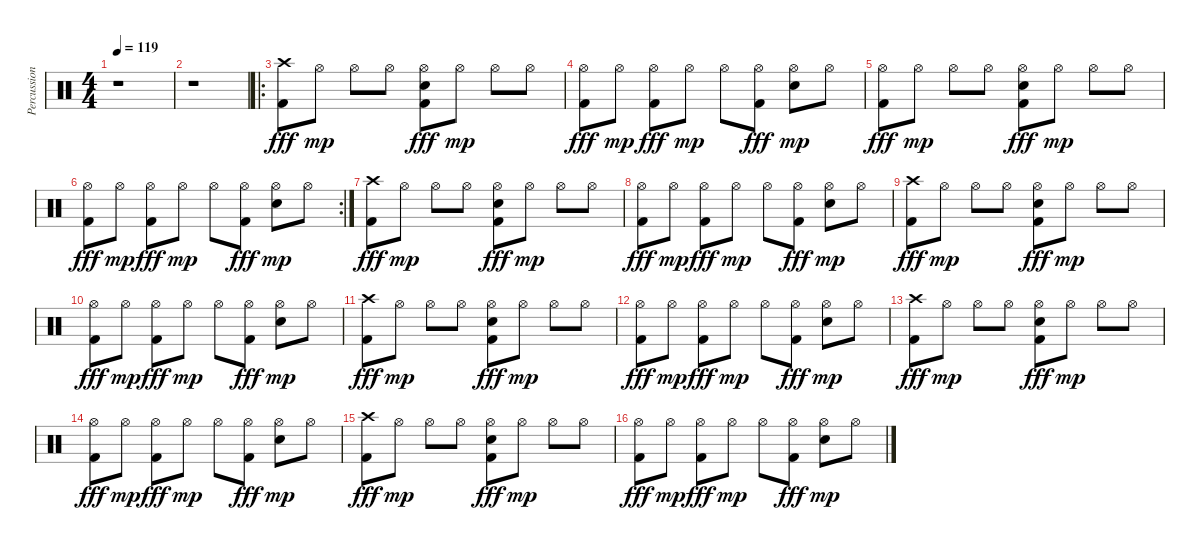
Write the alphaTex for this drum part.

\track ("Percussion" "Percussion") {instrument percussion}
\staff {score}
\articulation defaults
\ts (4 4)
\tempo 119
\clef neutral
\ks c
r.1{dy mp} |
r.1 |
\ro
("Crash high (hit)" "Kick (hit) 2").8{dy fff} "Hi-Hat (open)".8{dy mp} "Hi-Hat (open)".8 "Hi-Hat (open)".8 ("Hi-Hat (open)" "Electric Snare (hit)" "Kick (hit) 2").8{dy fff} "Hi-Hat (open)".8{dy mp} "Hi-Hat (open)".8 "Hi-Hat (open)".8 |
("Hi-Hat (open)" "Kick (hit) 2").8{dy fff} "Hi-Hat (open)".8{dy mp} ("Hi-Hat (open)" "Kick (hit) 2").8{dy fff} "Hi-Hat (open)".8{dy mp} "Hi-Hat (open)".8 ("Hi-Hat (open)" "Kick (hit) 2").8{dy fff} ("Hi-Hat (open)" "Electric Snare (hit)").8{dy mp} "Hi-Hat (open)".8 |
("Hi-Hat (open)" "Kick (hit) 2").8{dy fff} "Hi-Hat (open)".8{dy mp} "Hi-Hat (open)".8 "Hi-Hat (open)".8 ("Hi-Hat (open)" "Electric Snare (hit)" "Kick (hit) 2").8{dy fff} "Hi-Hat (open)".8{dy mp} "Hi-Hat (open)".8 "Hi-Hat (open)".8 |
\rc 2
("Hi-Hat (open)" "Kick (hit) 2").8{dy fff} "Hi-Hat (open)".8{dy mp} ("Hi-Hat (open)" "Kick (hit) 2").8{dy fff} "Hi-Hat (open)".8{dy mp} "Hi-Hat (open)".8 ("Hi-Hat (open)" "Kick (hit) 2").8{dy fff} ("Hi-Hat (open)" "Electric Snare (hit)").8{dy mp} "Hi-Hat (open)".8 |
("Crash high (hit)" "Kick (hit) 2").8{dy fff} "Hi-Hat (open)".8{dy mp} "Hi-Hat (open)".8 "Hi-Hat (open)".8 ("Hi-Hat (open)" "Electric Snare (hit)" "Kick (hit) 2").8{dy fff} "Hi-Hat (open)".8{dy mp} "Hi-Hat (open)".8 "Hi-Hat (open)".8 |
("Hi-Hat (open)" "Kick (hit) 2").8{dy fff} "Hi-Hat (open)".8{dy mp} ("Hi-Hat (open)" "Kick (hit) 2").8{dy fff} "Hi-Hat (open)".8{dy mp} "Hi-Hat (open)".8 ("Hi-Hat (open)" "Kick (hit) 2").8{dy fff} ("Hi-Hat (open)" "Electric Snare (hit)").8{dy mp} "Hi-Hat (open)".8 |
("Crash high (hit)" "Kick (hit) 2").8{dy fff} "Hi-Hat (open)".8{dy mp} "Hi-Hat (open)".8 "Hi-Hat (open)".8 ("Hi-Hat (open)" "Electric Snare (hit)" "Kick (hit) 2").8{dy fff} "Hi-Hat (open)".8{dy mp} "Hi-Hat (open)".8 "Hi-Hat (open)".8 |
("Hi-Hat (open)" "Kick (hit) 2").8{dy fff} "Hi-Hat (open)".8{dy mp} ("Hi-Hat (open)" "Kick (hit) 2").8{dy fff} "Hi-Hat (open)".8{dy mp} "Hi-Hat (open)".8 ("Hi-Hat (open)" "Kick (hit) 2").8{dy fff} ("Hi-Hat (open)" "Electric Snare (hit)").8{dy mp} "Hi-Hat (open)".8 |
("Crash high (hit)" "Kick (hit) 2").8{dy fff} "Hi-Hat (open)".8{dy mp} "Hi-Hat (open)".8 "Hi-Hat (open)".8 ("Hi-Hat (open)" "Electric Snare (hit)" "Kick (hit) 2").8{dy fff} "Hi-Hat (open)".8{dy mp} "Hi-Hat (open)".8 "Hi-Hat (open)".8 |
("Hi-Hat (open)" "Kick (hit) 2").8{dy fff} "Hi-Hat (open)".8{dy mp} ("Hi-Hat (open)" "Kick (hit) 2").8{dy fff} "Hi-Hat (open)".8{dy mp} "Hi-Hat (open)".8 ("Hi-Hat (open)" "Kick (hit) 2").8{dy fff} ("Hi-Hat (open)" "Electric Snare (hit)").8{dy mp} "Hi-Hat (open)".8 |
("Crash high (hit)" "Kick (hit) 2").8{dy fff} "Hi-Hat (open)".8{dy mp} "Hi-Hat (open)".8 "Hi-Hat (open)".8 ("Hi-Hat (open)" "Electric Snare (hit)" "Kick (hit) 2").8{dy fff} "Hi-Hat (open)".8{dy mp} "Hi-Hat (open)".8 "Hi-Hat (open)".8 |
("Hi-Hat (open)" "Kick (hit) 2").8{dy fff} "Hi-Hat (open)".8{dy mp} ("Hi-Hat (open)" "Kick (hit) 2").8{dy fff} "Hi-Hat (open)".8{dy mp} "Hi-Hat (open)".8 ("Hi-Hat (open)" "Kick (hit) 2").8{dy fff} ("Hi-Hat (open)" "Electric Snare (hit)").8{dy mp} "Hi-Hat (open)".8 |
("Crash high (hit)" "Kick (hit) 2").8{dy fff} "Hi-Hat (open)".8{dy mp} "Hi-Hat (open)".8 "Hi-Hat (open)".8 ("Hi-Hat (open)" "Electric Snare (hit)" "Kick (hit) 2").8{dy fff} "Hi-Hat (open)".8{dy mp} "Hi-Hat (open)".8 "Hi-Hat (open)".8 |
("Hi-Hat (open)" "Kick (hit) 2").8{dy fff} "Hi-Hat (open)".8{dy mp} ("Hi-Hat (open)" "Kick (hit) 2").8{dy fff} "Hi-Hat (open)".8{dy mp} "Hi-Hat (open)".8 ("Hi-Hat (open)" "Kick (hit) 2").8{dy fff} ("Hi-Hat (open)" "Electric Snare (hit)").8{dy mp} "Hi-Hat (open)".8
